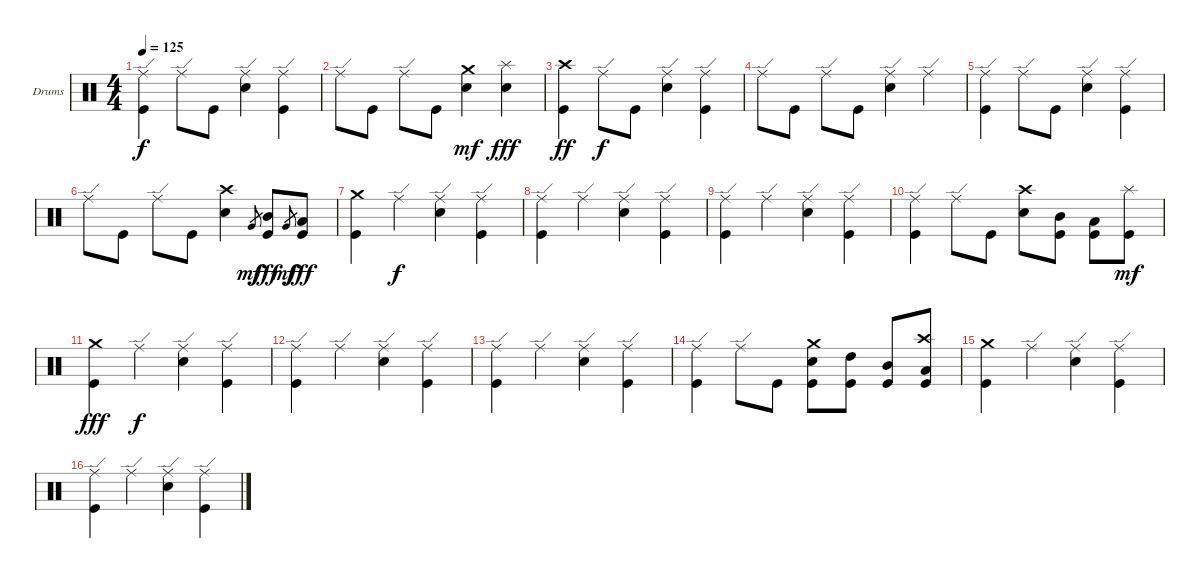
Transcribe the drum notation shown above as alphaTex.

\bracketExtendMode groupsimilarinstruments
\firstSystemTrackNameOrientation horizontal
\otherSystemsTrackNameOrientation horizontal
\track ("Барабаны" "Drums") {instrument percussion}
\staff {score}
\articulation defaults
\ts (4 4)
\tempo 125
\clef neutral
\ks c
("Ride (edge)" "Kick (hit)").4{dy f} "Ride (edge)".8 "Kick (hit)".8 ("Ride (edge)" "Snare (hit) 2").4 ("Ride (edge)" "Kick (hit)").4 |
"Ride (edge)".8 "Kick (hit)".8 "Ride (edge)".8 "Kick (hit)".8 ("Crash medium (hit)" "Snare (hit) 2").4{dy mf} ("Splash (hit)" "Snare (hit) 2").4{dy fff} |
("Crash high (hit)" "Kick (hit)").4{dy ff} "Ride (edge)".8{dy f} "Kick (hit)".8 ("Ride (edge)" "Snare (hit) 2").4 ("Ride (edge)" "Kick (hit)").4 |
"Ride (edge)".8 "Kick (hit)".8 "Ride (edge)".8 "Kick (hit)".8 ("Ride (edge)" "Snare (hit) 2").4 "Ride (edge)".4 |
("Ride (edge)" "Kick (hit)").4 "Ride (edge)".8 "Kick (hit)".8 ("Ride (edge)" "Snare (hit) 2").4 ("Ride (edge)" "Kick (hit)").4 |
"Ride (edge)".8 "Kick (hit)".8 "Ride (edge)".8 "Kick (hit)".8 ("Crash high (hit)" "Snare (hit) 2").4 "Very Low Tom (hit)".8{gr dy mf} ("Mid Tom (hit)" "Kick (hit)").8{dy fff} "Very Low Tom (hit)".8{gr dy mf} ("Low Tom (hit)" "Kick (hit)").8{dy fff} |
("Crash medium (hit)" "Kick (hit)").4 "Ride (edge)".4{dy f} ("Ride (edge)" "Snare (hit) 2").4 ("Ride (edge)" "Kick (hit)").4 |
("Ride (edge)" "Kick (hit)").4 "Ride (edge)".4 ("Ride (edge)" "Snare (hit) 2").4 ("Ride (edge)" "Kick (hit)").4 |
("Ride (edge)" "Kick (hit)").4 "Ride (edge)".4 ("Ride (edge)" "Snare (hit) 2").4 ("Ride (edge)" "Kick (hit)").4 |
("Ride (edge)" "Kick (hit)").4 "Ride (edge)".8 "Kick (hit)".8 ("Crash high (hit)" "Snare (hit) 2").8 ("Mid Tom (hit)" "Kick (hit)").8 ("Low Tom (hit)" "Kick (hit)").8 ("Kick (hit)" "Splash (hit)").8{dy mf} |
("Crash medium (hit)" "Kick (hit)").4{dy fff} "Ride (edge)".4{dy f} ("Ride (edge)" "Snare (hit) 2").4 ("Ride (edge)" "Kick (hit)").4 |
("Ride (edge)" "Kick (hit)").4 "Ride (edge)".4 ("Ride (edge)" "Snare (hit) 2").4 ("Ride (edge)" "Kick (hit)").4 |
("Ride (edge)" "Kick (hit)").4 "Ride (edge)".4 ("Ride (edge)" "Snare (hit) 2").4 ("Ride (edge)" "Kick (hit)").4 |
("Ride (edge)" "Kick (hit)").4 "Ride (edge)".8 "Kick (hit)".8 ("Crash medium (hit)" "Snare (hit) 2" "Kick (hit)").8 ("High Tom (hit)" "Kick (hit)").8 ("Mid Tom (hit)" "Kick (hit)").8 ("Crash high (hit)" "Low Tom (hit)" "Kick (hit)").8 |
("Crash medium (hit)" "Kick (hit)").4 "Ride (edge)".4 ("Ride (edge)" "Snare (hit) 2").4 ("Ride (edge)" "Kick (hit)").4 |
("Ride (edge)" "Kick (hit)").4 "Ride (edge)".4 ("Ride (edge)" "Snare (hit) 2").4 ("Ride (edge)" "Kick (hit)").4
